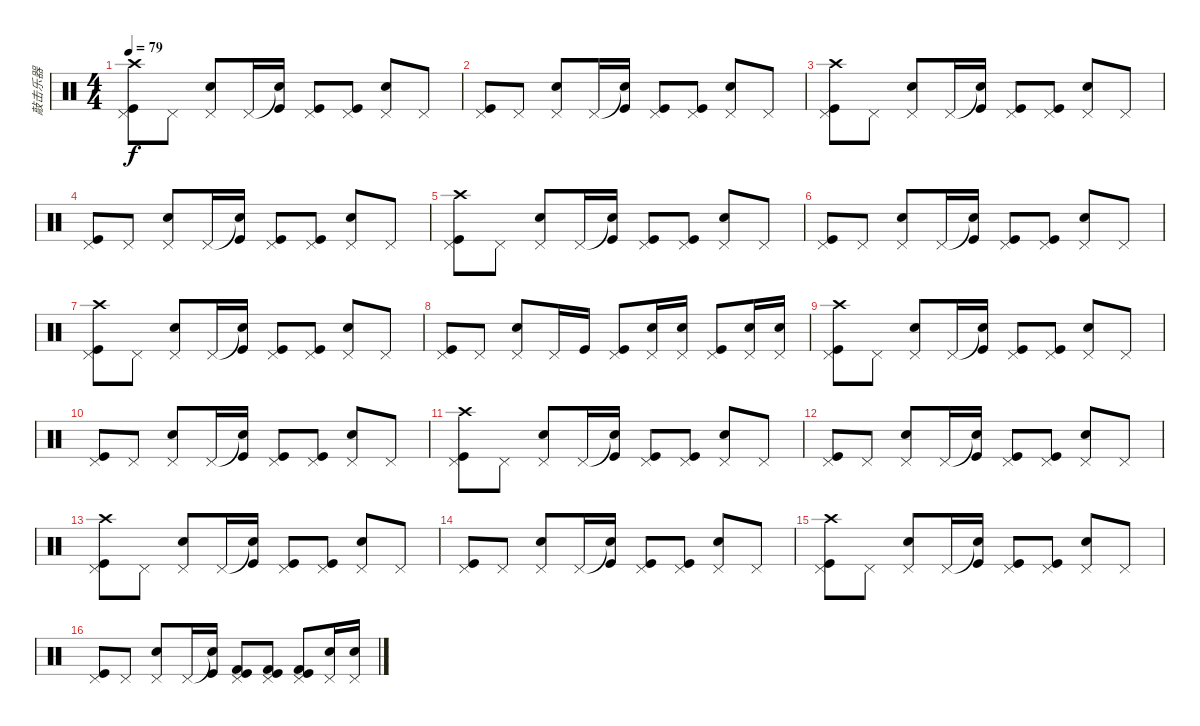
\track ("敲击乐器" "敲击乐器") {instrument percussion}
\staff {score}
\articulation defaults
\ts (4 4)
\tempo 79
\clef neutral
\ks c
("Pedal Hi-Hat (hit)" "Kick (hit)" "Crash high (hit)").8{dy f} "Pedal Hi-Hat (hit)".8 ("Pedal Hi-Hat (hit)" "Electric Snare (hit)").8 "Pedal Hi-Hat (hit)".16 ("Snare (hit)"{t} "Kick (hit)").16 ("Pedal Hi-Hat (hit)" "Kick (hit)").8 ("Pedal Hi-Hat (hit)" "Kick (hit)").8 ("Pedal Hi-Hat (hit)" "Electric Snare (hit)").8 "Pedal Hi-Hat (hit)".8 |
("Pedal Hi-Hat (hit)" "Kick (hit)").8 "Pedal Hi-Hat (hit)".8 ("Pedal Hi-Hat (hit)" "Electric Snare (hit)").8 "Pedal Hi-Hat (hit)".16 ("Snare (hit)"{t} "Kick (hit)").16 ("Pedal Hi-Hat (hit)" "Kick (hit)").8 ("Pedal Hi-Hat (hit)" "Kick (hit)").8 ("Pedal Hi-Hat (hit)" "Electric Snare (hit)").8 "Pedal Hi-Hat (hit)".8 |
("Pedal Hi-Hat (hit)" "Kick (hit)" "Crash high (hit)").8 "Pedal Hi-Hat (hit)".8 ("Pedal Hi-Hat (hit)" "Electric Snare (hit)").8 "Pedal Hi-Hat (hit)".16 ("Snare (hit)"{t} "Kick (hit)").16 ("Pedal Hi-Hat (hit)" "Kick (hit)").8 ("Pedal Hi-Hat (hit)" "Kick (hit)").8 ("Pedal Hi-Hat (hit)" "Electric Snare (hit)").8 "Pedal Hi-Hat (hit)".8 |
("Pedal Hi-Hat (hit)" "Kick (hit)").8 "Pedal Hi-Hat (hit)".8 ("Pedal Hi-Hat (hit)" "Electric Snare (hit)").8 "Pedal Hi-Hat (hit)".16 ("Snare (hit)"{t} "Kick (hit)").16 ("Pedal Hi-Hat (hit)" "Kick (hit)").8 ("Pedal Hi-Hat (hit)" "Kick (hit)").8 ("Pedal Hi-Hat (hit)" "Electric Snare (hit)").8 "Pedal Hi-Hat (hit)".8 |
("Pedal Hi-Hat (hit)" "Kick (hit)" "Crash high (hit)").8 "Pedal Hi-Hat (hit)".8 ("Pedal Hi-Hat (hit)" "Electric Snare (hit)").8 "Pedal Hi-Hat (hit)".16 ("Snare (hit)"{t} "Kick (hit)").16 ("Pedal Hi-Hat (hit)" "Kick (hit)").8 ("Pedal Hi-Hat (hit)" "Kick (hit)").8 ("Pedal Hi-Hat (hit)" "Electric Snare (hit)").8 "Pedal Hi-Hat (hit)".8 |
("Pedal Hi-Hat (hit)" "Kick (hit)").8 "Pedal Hi-Hat (hit)".8 ("Pedal Hi-Hat (hit)" "Electric Snare (hit)").8 "Pedal Hi-Hat (hit)".16 ("Snare (hit)"{t} "Kick (hit)").16 ("Pedal Hi-Hat (hit)" "Kick (hit)").8 ("Pedal Hi-Hat (hit)" "Kick (hit)").8 ("Pedal Hi-Hat (hit)" "Electric Snare (hit)").8 "Pedal Hi-Hat (hit)".8 |
("Pedal Hi-Hat (hit)" "Kick (hit)" "Crash high (hit)").8 "Pedal Hi-Hat (hit)".8 ("Pedal Hi-Hat (hit)" "Electric Snare (hit)").8 "Pedal Hi-Hat (hit)".16 ("Snare (hit)"{t} "Kick (hit)").16 ("Pedal Hi-Hat (hit)" "Kick (hit)").8 ("Pedal Hi-Hat (hit)" "Kick (hit)").8 ("Pedal Hi-Hat (hit)" "Electric Snare (hit)").8 "Pedal Hi-Hat (hit)".8 |
("Pedal Hi-Hat (hit)" "Kick (hit)").8 "Pedal Hi-Hat (hit)".8 ("Pedal Hi-Hat (hit)" "Electric Snare (hit)").8 "Pedal Hi-Hat (hit)".16 "Kick (hit)".16 ("Pedal Hi-Hat (hit)" "Kick (hit)").8 ("Pedal Hi-Hat (hit)" "Electric Snare (hit)").16 ("Pedal Hi-Hat (hit)" "Snare (hit) 2").16 ("Pedal Hi-Hat (hit)" "Kick (hit)").8 ("Pedal Hi-Hat (hit)" "Electric Snare (hit)").16 ("Pedal Hi-Hat (hit)" "Snare (hit) 2").16 |
("Pedal Hi-Hat (hit)" "Kick (hit)" "Crash high (hit)").8 "Pedal Hi-Hat (hit)".8 ("Pedal Hi-Hat (hit)" "Electric Snare (hit)").8 "Pedal Hi-Hat (hit)".16 ("Snare (hit)"{t} "Kick (hit)").16 ("Pedal Hi-Hat (hit)" "Kick (hit)").8 ("Pedal Hi-Hat (hit)" "Kick (hit)").8 ("Pedal Hi-Hat (hit)" "Electric Snare (hit)").8 "Pedal Hi-Hat (hit)".8 |
("Pedal Hi-Hat (hit)" "Kick (hit)").8 "Pedal Hi-Hat (hit)".8 ("Pedal Hi-Hat (hit)" "Electric Snare (hit)").8 "Pedal Hi-Hat (hit)".16 ("Snare (hit)"{t} "Kick (hit)").16 ("Pedal Hi-Hat (hit)" "Kick (hit)").8 ("Pedal Hi-Hat (hit)" "Kick (hit)").8 ("Pedal Hi-Hat (hit)" "Electric Snare (hit)").8 "Pedal Hi-Hat (hit)".8 |
("Pedal Hi-Hat (hit)" "Kick (hit)" "Crash high (hit)").8 "Pedal Hi-Hat (hit)".8 ("Pedal Hi-Hat (hit)" "Electric Snare (hit)").8 "Pedal Hi-Hat (hit)".16 ("Snare (hit)"{t} "Kick (hit)").16 ("Pedal Hi-Hat (hit)" "Kick (hit)").8 ("Pedal Hi-Hat (hit)" "Kick (hit)").8 ("Pedal Hi-Hat (hit)" "Electric Snare (hit)").8 "Pedal Hi-Hat (hit)".8 |
("Pedal Hi-Hat (hit)" "Kick (hit)").8 "Pedal Hi-Hat (hit)".8 ("Pedal Hi-Hat (hit)" "Electric Snare (hit)").8 "Pedal Hi-Hat (hit)".16 ("Snare (hit)"{t} "Kick (hit)").16 ("Pedal Hi-Hat (hit)" "Kick (hit)").8 ("Pedal Hi-Hat (hit)" "Kick (hit)").8 ("Pedal Hi-Hat (hit)" "Electric Snare (hit)").8 "Pedal Hi-Hat (hit)".8 |
("Pedal Hi-Hat (hit)" "Kick (hit)" "Crash high (hit)").8 "Pedal Hi-Hat (hit)".8 ("Pedal Hi-Hat (hit)" "Electric Snare (hit)").8 "Pedal Hi-Hat (hit)".16 ("Snare (hit)"{t} "Kick (hit)").16 ("Pedal Hi-Hat (hit)" "Kick (hit)").8 ("Pedal Hi-Hat (hit)" "Kick (hit)").8 ("Pedal Hi-Hat (hit)" "Electric Snare (hit)").8 "Pedal Hi-Hat (hit)".8 |
("Pedal Hi-Hat (hit)" "Kick (hit)").8 "Pedal Hi-Hat (hit)".8 ("Pedal Hi-Hat (hit)" "Electric Snare (hit)").8 "Pedal Hi-Hat (hit)".16 ("Snare (hit)"{t} "Kick (hit)").16 ("Pedal Hi-Hat (hit)" "Kick (hit)").8 ("Pedal Hi-Hat (hit)" "Kick (hit)").8 ("Pedal Hi-Hat (hit)" "Electric Snare (hit)").8 "Pedal Hi-Hat (hit)".8 |
("Pedal Hi-Hat (hit)" "Kick (hit)" "Crash high (hit)").8 "Pedal Hi-Hat (hit)".8 ("Pedal Hi-Hat (hit)" "Electric Snare (hit)").8 "Pedal Hi-Hat (hit)".16 ("Snare (hit)"{t} "Kick (hit)").16 ("Pedal Hi-Hat (hit)" "Kick (hit)").8 ("Pedal Hi-Hat (hit)" "Kick (hit)").8 ("Pedal Hi-Hat (hit)" "Electric Snare (hit)").8 "Pedal Hi-Hat (hit)".8 |
("Pedal Hi-Hat (hit)" "Kick (hit)").8 "Pedal Hi-Hat (hit)".8 ("Pedal Hi-Hat (hit)" "Electric Snare (hit)").8 "Pedal Hi-Hat (hit)".16 ("Snare (hit)"{t} "Kick (hit)").16 ("Pedal Hi-Hat (hit)" "Kick (hit)" "Kick (hit) 2").8 ("Pedal Hi-Hat (hit)" "Kick (hit)" "Kick (hit) 2").8 ("Pedal Hi-Hat (hit)" "Kick (hit)" "Kick (hit) 2").8 ("Pedal Hi-Hat (hit)" "Electric Snare (hit)").16 ("Pedal Hi-Hat (hit)" "Snare (hit) 2").16
